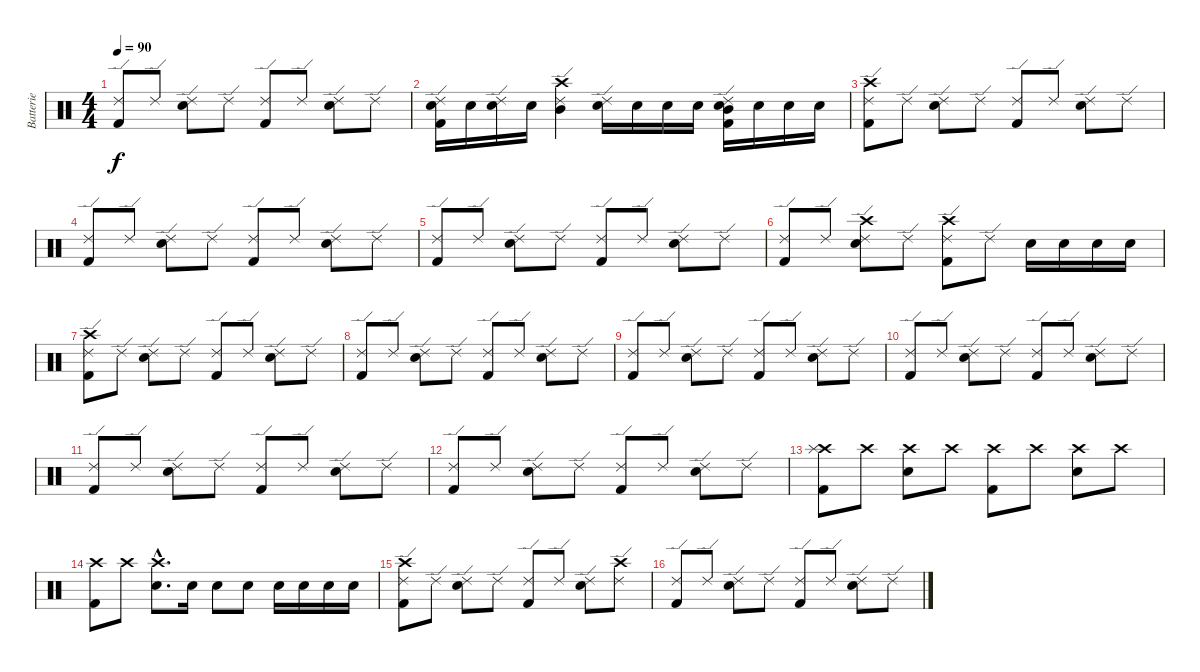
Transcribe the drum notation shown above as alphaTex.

\track ("Batterie" "Batterie") {instrument percussion}
\staff {score}
\articulation defaults
\ts (4 4)
\tempo 90
\clef neutral
\ks c
("Ride (edge) 2" "Kick (hit) 2").8{dy f} "Ride (edge) 2".8 ("Ride (edge) 2" "Electric Snare (hit)").8 "Ride (edge) 2".8 ("Ride (edge) 2" "Kick (hit) 2").8 "Ride (edge) 2".8 ("Ride (edge) 2" "Electric Snare (hit)").8 "Ride (edge) 2".8 |
("Ride (edge) 2" "Kick (hit) 2" "Electric Snare (hit)").16 "Electric Snare (hit)".16 ("Ride (edge) 2" "Electric Snare (hit)").16 "Electric Snare (hit)".16 ("Ride (edge) 2" "Mid Tom (hit)" "Crash high (hit)").4 ("Ride (edge) 2" "Electric Snare (hit)").16 "Electric Snare (hit)".16 "Electric Snare (hit)".16 "Electric Snare (hit)".16 ("Ride (edge) 2" "Mid Tom (hit)" "Kick (hit) 2" "Electric Snare (hit)").16 "Electric Snare (hit)".16 "Electric Snare (hit)".16 "Electric Snare (hit)".16 |
("Ride (edge) 2" "Kick (hit) 2" "Crash high (hit)").8 "Ride (edge) 2".8 ("Ride (edge) 2" "Electric Snare (hit)").8 "Ride (edge) 2".8 ("Ride (edge) 2" "Kick (hit) 2").8 "Ride (edge) 2".8 ("Ride (edge) 2" "Electric Snare (hit)").8 "Ride (edge) 2".8 |
("Ride (edge) 2" "Kick (hit) 2").8 "Ride (edge) 2".8 ("Ride (edge) 2" "Electric Snare (hit)").8 "Ride (edge) 2".8 ("Ride (edge) 2" "Kick (hit) 2").8 "Ride (edge) 2".8 ("Ride (edge) 2" "Electric Snare (hit)").8 "Ride (edge) 2".8 |
("Ride (edge) 2" "Kick (hit) 2").8 "Ride (edge) 2".8 ("Ride (edge) 2" "Electric Snare (hit)").8 "Ride (edge) 2".8 ("Ride (edge) 2" "Kick (hit) 2").8 "Ride (edge) 2".8 ("Ride (edge) 2" "Electric Snare (hit)").8 "Ride (edge) 2".8 |
("Ride (edge) 2" "Kick (hit) 2").8 "Ride (edge) 2".8 ("Ride (edge) 2" "Electric Snare (hit)" "Crash high (hit)").8 "Ride (edge) 2".8 ("Ride (edge) 2" "Kick (hit) 2" "Crash high (hit)").8 "Ride (edge) 2".8 "Electric Snare (hit)".16 "Electric Snare (hit)".16 "Electric Snare (hit)".16 "Electric Snare (hit)".16 |
("Ride (edge) 2" "Kick (hit) 2" "Crash high (hit)").8 "Ride (edge) 2".8 ("Ride (edge) 2" "Electric Snare (hit)").8 "Ride (edge) 2".8 ("Ride (edge) 2" "Kick (hit) 2").8 "Ride (edge) 2".8 ("Ride (edge) 2" "Electric Snare (hit)").8 "Ride (edge) 2".8 |
("Ride (edge) 2" "Kick (hit) 2").8 "Ride (edge) 2".8 ("Ride (edge) 2" "Electric Snare (hit)").8 "Ride (edge) 2".8 ("Ride (edge) 2" "Kick (hit) 2").8 "Ride (edge) 2".8 ("Ride (edge) 2" "Electric Snare (hit)").8 "Ride (edge) 2".8 |
("Ride (edge) 2" "Kick (hit) 2").8 "Ride (edge) 2".8 ("Ride (edge) 2" "Electric Snare (hit)").8 "Ride (edge) 2".8 ("Ride (edge) 2" "Kick (hit) 2").8 "Ride (edge) 2".8 ("Ride (edge) 2" "Electric Snare (hit)").8 "Ride (edge) 2".8 |
("Ride (edge) 2" "Kick (hit) 2").8 "Ride (edge) 2".8 ("Ride (edge) 2" "Electric Snare (hit)").8 "Ride (edge) 2".8 ("Ride (edge) 2" "Kick (hit) 2").8 "Ride (edge) 2".8 ("Ride (edge) 2" "Electric Snare (hit)").8 "Ride (edge) 2".8 |
("Ride (edge) 2" "Kick (hit) 2").8 "Ride (edge) 2".8 ("Ride (edge) 2" "Electric Snare (hit)").8 "Ride (edge) 2".8 ("Ride (edge) 2" "Kick (hit) 2").8 "Ride (edge) 2".8 ("Ride (edge) 2" "Electric Snare (hit)").8 "Ride (edge) 2".8 |
("Ride (edge) 2" "Kick (hit) 2").8 "Ride (edge) 2".8 ("Ride (edge) 2" "Electric Snare (hit)").8 "Ride (edge) 2".8 ("Ride (edge) 2" "Kick (hit) 2").8 "Ride (edge) 2".8 ("Ride (edge) 2" "Electric Snare (hit)").8 "Ride (edge) 2".8 |
("Crash high (hit)" "Kick (hit) 2" "Splash (hit)").8 "Crash high (hit)".8 ("Crash high (hit)" "Electric Snare (hit)").8 "Crash high (hit)".8 ("Crash high (hit)" "Kick (hit) 2").8 "Crash high (hit)".8 ("Crash high (hit)" "Electric Snare (hit)").8 "Crash high (hit)".8 |
("Crash high (hit)" "Kick (hit) 2").8 "Crash high (hit)".8 ("Crash high (hit)"{hac} "Electric Snare (hit)"{hac}).8{d} "Electric Snare (hit)".16 "Electric Snare (hit)".8 "Electric Snare (hit)".8 "Electric Snare (hit)".16 "Electric Snare (hit)".16 "Electric Snare (hit)".16 "Electric Snare (hit)".16 |
("Ride (edge) 2" "Kick (hit) 2" "Crash high (hit)").8 "Ride (edge) 2".8 ("Ride (edge) 2" "Electric Snare (hit)").8 "Ride (edge) 2".8 ("Ride (edge) 2" "Kick (hit) 2").8 "Ride (edge) 2".8 ("Ride (edge) 2" "Electric Snare (hit)").8 ("Ride (edge) 2" "Crash high (hit)").8 |
("Ride (edge) 2" "Kick (hit) 2").8 "Ride (edge) 2".8 ("Ride (edge) 2" "Electric Snare (hit)").8 "Ride (edge) 2".8 ("Ride (edge) 2" "Kick (hit) 2").8 "Ride (edge) 2".8 ("Ride (edge) 2" "Electric Snare (hit)").8 "Ride (edge) 2".8
